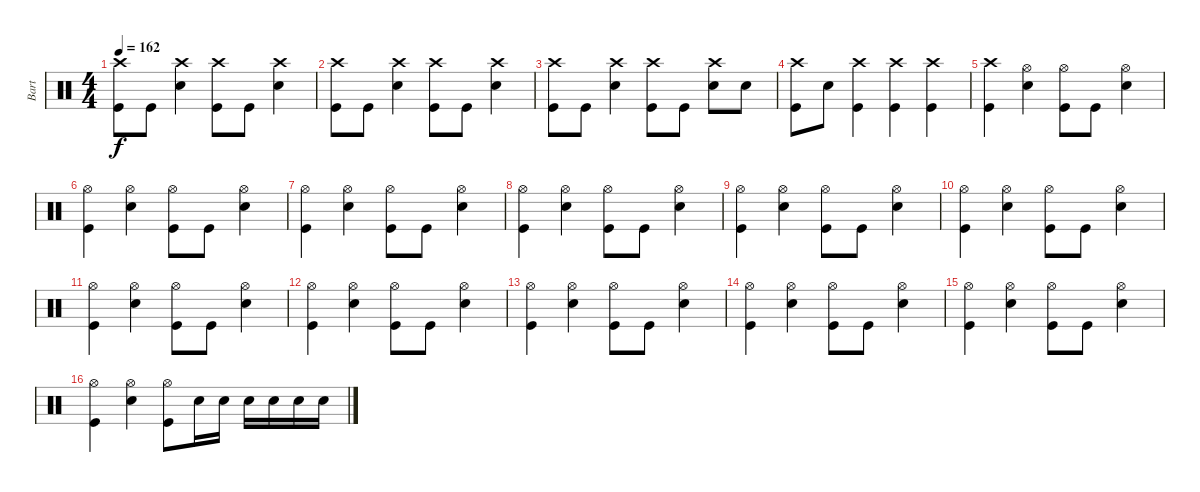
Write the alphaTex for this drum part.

\track ("Bart" "Bart") {instrument percussion}
\staff {score}
\articulation defaults
\ts (4 4)
\tempo 162
\clef neutral
\ks c
("Kick (hit)" "Crash high (hit)").8{dy f} "Kick (hit)".8 ("Electric Snare (hit)" "Crash high (hit)").4 ("Kick (hit)" "Crash high (hit)").8 "Kick (hit)".8 ("Electric Snare (hit)" "Crash high (hit)").4 |
("Kick (hit)" "Crash high (hit)").8 "Kick (hit)".8 ("Electric Snare (hit)" "Crash high (hit)").4 ("Kick (hit)" "Crash high (hit)").8 "Kick (hit)".8 ("Electric Snare (hit)" "Crash high (hit)").4 |
("Kick (hit)" "Crash high (hit)").8 "Kick (hit)".8 ("Electric Snare (hit)" "Crash high (hit)").4 ("Kick (hit)" "Crash high (hit)").8 "Kick (hit)".8 ("Electric Snare (hit)" "Crash high (hit)").8 "Electric Snare (hit)".8 |
("Kick (hit)" "Crash high (hit)").8 "Electric Snare (hit)".8 ("Kick (hit)" "Crash high (hit)").4 ("Kick (hit)" "Crash high (hit)").4 ("Kick (hit)" "Crash high (hit)").4 |
("Kick (hit)" "Crash high (hit)").4 ("Electric Snare (hit)" "Hi-Hat (open)").4 ("Kick (hit)" "Hi-Hat (open)").8 "Kick (hit)".8 ("Electric Snare (hit)" "Hi-Hat (open)").4 |
("Kick (hit)" "Hi-Hat (open)").4 ("Electric Snare (hit)" "Hi-Hat (open)").4 ("Kick (hit)" "Hi-Hat (open)").8 "Kick (hit)".8 ("Electric Snare (hit)" "Hi-Hat (open)").4 |
("Kick (hit)" "Hi-Hat (open)").4 ("Electric Snare (hit)" "Hi-Hat (open)").4 ("Kick (hit)" "Hi-Hat (open)").8 "Kick (hit)".8 ("Electric Snare (hit)" "Hi-Hat (open)").4 |
("Kick (hit)" "Hi-Hat (open)").4 ("Electric Snare (hit)" "Hi-Hat (open)").4 ("Kick (hit)" "Hi-Hat (open)").8 "Kick (hit)".8 ("Electric Snare (hit)" "Hi-Hat (open)").4 |
("Kick (hit)" "Hi-Hat (open)").4 ("Electric Snare (hit)" "Hi-Hat (open)").4 ("Kick (hit)" "Hi-Hat (open)").8 "Kick (hit)".8 ("Electric Snare (hit)" "Hi-Hat (open)").4 |
("Kick (hit)" "Hi-Hat (open)").4 ("Electric Snare (hit)" "Hi-Hat (open)").4 ("Kick (hit)" "Hi-Hat (open)").8 "Kick (hit)".8 ("Electric Snare (hit)" "Hi-Hat (open)").4 |
("Kick (hit)" "Hi-Hat (open)").4 ("Electric Snare (hit)" "Hi-Hat (open)").4 ("Kick (hit)" "Hi-Hat (open)").8 "Kick (hit)".8 ("Electric Snare (hit)" "Hi-Hat (open)").4 |
("Kick (hit)" "Hi-Hat (open)").4 ("Electric Snare (hit)" "Hi-Hat (open)").4 ("Kick (hit)" "Hi-Hat (open)").8 "Kick (hit)".8 ("Electric Snare (hit)" "Hi-Hat (open)").4 |
("Kick (hit)" "Hi-Hat (open)").4 ("Electric Snare (hit)" "Hi-Hat (open)").4 ("Kick (hit)" "Hi-Hat (open)").8 "Kick (hit)".8 ("Electric Snare (hit)" "Hi-Hat (open)").4 |
("Kick (hit)" "Hi-Hat (open)").4 ("Electric Snare (hit)" "Hi-Hat (open)").4 ("Kick (hit)" "Hi-Hat (open)").8 "Kick (hit)".8 ("Electric Snare (hit)" "Hi-Hat (open)").4 |
("Kick (hit)" "Hi-Hat (open)").4 ("Electric Snare (hit)" "Hi-Hat (open)").4 ("Kick (hit)" "Hi-Hat (open)").8 "Kick (hit)".8 ("Electric Snare (hit)" "Hi-Hat (open)").4 |
("Kick (hit)" "Hi-Hat (open)").4 ("Electric Snare (hit)" "Hi-Hat (open)").4 ("Kick (hit)" "Hi-Hat (open)").8 "Electric Snare (hit)".16 "Electric Snare (hit)".16 "Electric Snare (hit)".16 "Electric Snare (hit)".16 "Electric Snare (hit)".16 "Electric Snare (hit)".16
